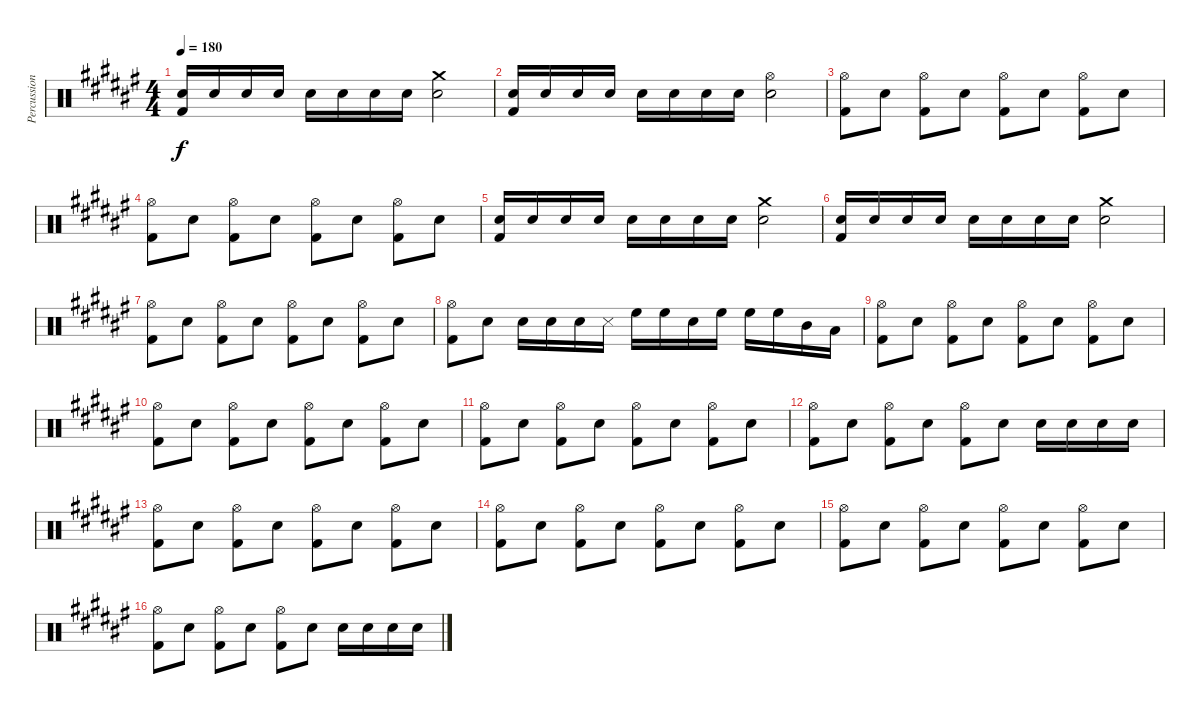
\track ("Percussion" "Percussion") {instrument percussion}
\staff {score}
\articulation defaults
\ts (4 4)
\tempo 180
\clef neutral
\ks f#
("Snare (hit) 2" "Kick (hit) 2").16{dy f} "Snare (hit) 2".16 "Snare (hit) 2".16 "Snare (hit) 2".16 "Snare (hit) 2".16 "Snare (hit) 2".16 "Snare (hit) 2".16 "Snare (hit) 2".16 ("Crash medium (hit)" "Snare (hit) 2").2 |
("Snare (hit) 2" "Kick (hit) 2").16 "Snare (hit) 2".16 "Snare (hit) 2".16 "Snare (hit) 2".16 "Snare (hit) 2".16 "Snare (hit) 2".16 "Snare (hit) 2".16 "Snare (hit) 2".16 ("Hi-Hat (open)" "Snare (hit) 2").2 |
("Hi-Hat (open)" "Kick (hit) 2").8 "Snare (hit) 2".8 ("Hi-Hat (open)" "Kick (hit) 2").8 "Snare (hit) 2".8 ("Hi-Hat (open)" "Kick (hit) 2").8 "Snare (hit) 2".8 ("Hi-Hat (open)" "Kick (hit) 2").8 "Snare (hit) 2".8 |
("Hi-Hat (open)" "Kick (hit) 2").8 "Snare (hit) 2".8 ("Hi-Hat (open)" "Kick (hit) 2").8 "Snare (hit) 2".8 ("Hi-Hat (open)" "Kick (hit) 2").8 "Snare (hit) 2".8 ("Hi-Hat (open)" "Kick (hit) 2").8 "Snare (hit) 2".8 |
("Snare (hit) 2" "Kick (hit) 2").16 "Snare (hit) 2".16 "Snare (hit) 2".16 "Snare (hit) 2".16 "Snare (hit) 2".16 "Snare (hit) 2".16 "Snare (hit) 2".16 "Snare (hit) 2".16 ("Crash medium (hit)" "Snare (hit) 2").2 |
("Snare (hit) 2" "Kick (hit) 2").16 "Snare (hit) 2".16 "Snare (hit) 2".16 "Snare (hit) 2".16 "Snare (hit) 2".16 "Snare (hit) 2".16 "Snare (hit) 2".16 "Snare (hit) 2".16 ("Crash medium (hit)" "Snare (hit) 2").2 |
("Hi-Hat (open)" "Kick (hit) 2").8 "Snare (hit) 2".8 ("Hi-Hat (open)" "Kick (hit) 2").8 "Snare (hit) 2".8 ("Hi-Hat (open)" "Kick (hit) 2").8 "Snare (hit) 2".8 ("Hi-Hat (open)" "Kick (hit) 2").8 "Snare (hit) 2".8 |
("Hi-Hat (open)" "Kick (hit) 2").8 "Snare (hit) 2".8 "Snare (hit) 2".16 "Snare (hit) 2".16 "Snare (hit) 2".16 "Snare (side stick) 3".16 "High Floor Tom (hit)".16 "High Floor Tom (hit)".16 "Snare (hit) 2".16 "High Floor Tom (hit)".16 "High Floor Tom (hit)".16 "High Floor Tom (hit)".16 "Mid Tom (hit)".16 "Low Floor Tom (hit)".16 |
("Hi-Hat (open)" "Kick (hit) 2").8 "Snare (hit) 2".8 ("Hi-Hat (open)" "Kick (hit) 2").8 "Snare (hit) 2".8 ("Hi-Hat (open)" "Kick (hit) 2").8 "Snare (hit) 2".8 ("Hi-Hat (open)" "Kick (hit) 2").8 "Snare (hit) 2".8 |
("Hi-Hat (open)" "Kick (hit) 2").8 "Snare (hit) 2".8 ("Hi-Hat (open)" "Kick (hit) 2").8 "Snare (hit) 2".8 ("Hi-Hat (open)" "Kick (hit) 2").8 "Snare (hit) 2".8 ("Hi-Hat (open)" "Kick (hit) 2").8 "Snare (hit) 2".8 |
("Hi-Hat (open)" "Kick (hit) 2").8 "Snare (hit) 2".8 ("Hi-Hat (open)" "Kick (hit) 2").8 "Snare (hit) 2".8 ("Hi-Hat (open)" "Kick (hit) 2").8 "Snare (hit) 2".8 ("Hi-Hat (open)" "Kick (hit) 2").8 "Snare (hit) 2".8 |
("Hi-Hat (open)" "Kick (hit) 2").8 "Snare (hit) 2".8 ("Hi-Hat (open)" "Kick (hit) 2").8 "Snare (hit) 2".8 ("Hi-Hat (open)" "Kick (hit) 2").8 "Snare (hit) 2".8 "Snare (hit) 2".16 "Snare (hit) 2".16 "Snare (hit) 2".16 "Snare (hit) 2".16 |
("Hi-Hat (open)" "Kick (hit) 2").8 "Snare (hit) 2".8 ("Hi-Hat (open)" "Kick (hit) 2").8 "Snare (hit) 2".8 ("Hi-Hat (open)" "Kick (hit) 2").8 "Snare (hit) 2".8 ("Hi-Hat (open)" "Kick (hit) 2").8 "Snare (hit) 2".8 |
("Hi-Hat (open)" "Kick (hit) 2").8 "Snare (hit) 2".8 ("Hi-Hat (open)" "Kick (hit) 2").8 "Snare (hit) 2".8 ("Hi-Hat (open)" "Kick (hit) 2").8 "Snare (hit) 2".8 ("Hi-Hat (open)" "Kick (hit) 2").8 "Snare (hit) 2".8 |
("Hi-Hat (open)" "Kick (hit) 2").8 "Snare (hit) 2".8 ("Hi-Hat (open)" "Kick (hit) 2").8 "Snare (hit) 2".8 ("Hi-Hat (open)" "Kick (hit) 2").8 "Snare (hit) 2".8 ("Hi-Hat (open)" "Kick (hit) 2").8 "Snare (hit) 2".8 |
("Hi-Hat (open)" "Kick (hit) 2").8 "Snare (hit) 2".8 ("Hi-Hat (open)" "Kick (hit) 2").8 "Snare (hit) 2".8 ("Hi-Hat (open)" "Kick (hit) 2").8 "Snare (hit) 2".8 "Snare (hit) 2".16 "Snare (hit) 2".16 "Snare (hit) 2".16 "Snare (hit) 2".16
